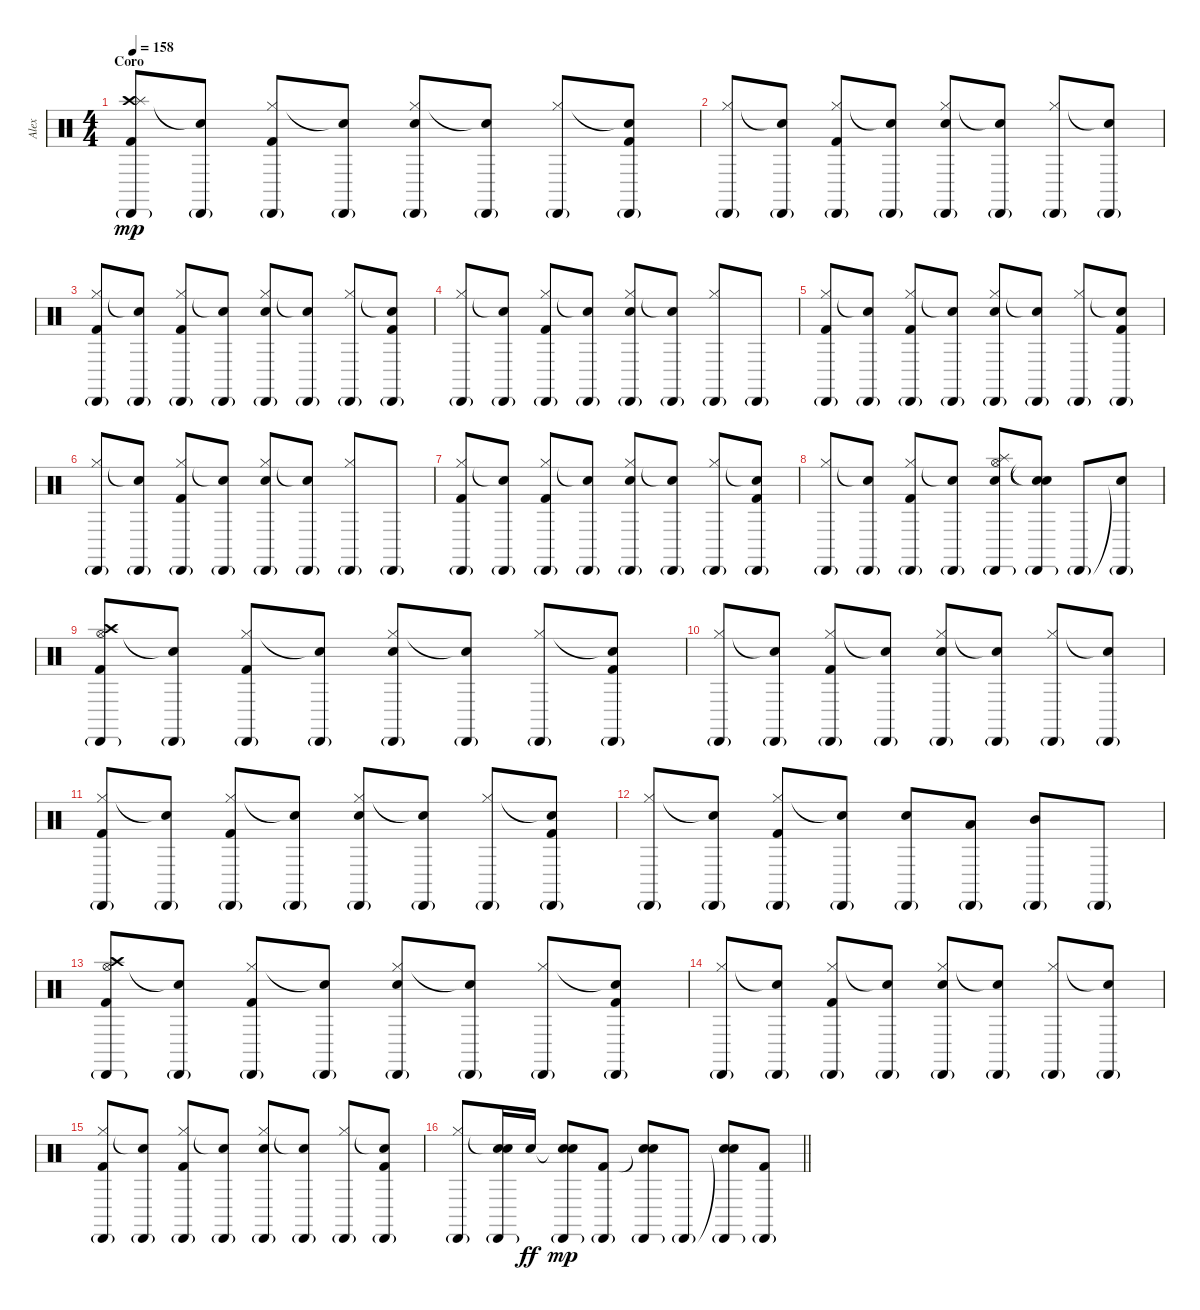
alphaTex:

\track ("Alex" "Alex") {instrument percussion}
\staff {score}
\articulation defaults
\ts (4 4)
\section ("" "Coro")
\tempo 158
\clef neutral
\ks c
("Crash high (hit)" "Kick (hit) 2" "Splash (hit)" "Cabasa (hit)"{g}).8{dy mp} ("Snare (hit)"{t} "Cabasa (hit)"{g}).8 ("Hi-Hat (closed)" "Kick (hit) 2" "Cabasa (hit)"{g}).8 ("Snare (hit)"{t} "Cabasa (hit)"{g}).8 ("Hi-Hat (closed)" "Electric Snare (hit)" "Cabasa (hit)"{g}).8 ("Snare (hit)"{t} "Cabasa (hit)"{g}).8 ("Hi-Hat (closed)" "Cabasa (hit)"{g}).8 ("Snare (hit)"{t} "Kick (hit) 2" "Cabasa (hit)"{g}).8 |
("Hi-Hat (closed)" "Cabasa (hit)"{g}).8 ("Snare (hit)"{t} "Cabasa (hit)"{g}).8 ("Hi-Hat (closed)" "Kick (hit) 2" "Cabasa (hit)"{g}).8 ("Snare (hit)"{t} "Cabasa (hit)"{g}).8 ("Hi-Hat (closed)" "Electric Snare (hit)" "Cabasa (hit)"{g}).8 ("Snare (hit)"{t} "Cabasa (hit)"{g}).8 ("Hi-Hat (closed)" "Cabasa (hit)"{g}).8 ("Snare (hit)"{t} "Cabasa (hit)"{g}).8 |
("Hi-Hat (closed)" "Kick (hit) 2" "Cabasa (hit)"{g}).8 ("Snare (hit)"{t} "Cabasa (hit)"{g}).8 ("Hi-Hat (closed)" "Kick (hit) 2" "Cabasa (hit)"{g}).8 ("Snare (hit)"{t} "Cabasa (hit)"{g}).8 ("Hi-Hat (closed)" "Electric Snare (hit)" "Cabasa (hit)"{g}).8 ("Snare (hit)"{t} "Cabasa (hit)"{g}).8 ("Hi-Hat (closed)" "Cabasa (hit)"{g}).8 ("Snare (hit)"{t} "Kick (hit) 2" "Cabasa (hit)"{g}).8 |
("Hi-Hat (closed)" "Cabasa (hit)"{g}).8 ("Snare (hit)"{t} "Cabasa (hit)"{g}).8 ("Hi-Hat (closed)" "Kick (hit) 2" "Cabasa (hit)"{g}).8 ("Snare (hit)"{t} "Cabasa (hit)"{g}).8 ("Hi-Hat (closed)" "Electric Snare (hit)" "Cabasa (hit)"{g}).8 ("Snare (hit)"{t} "Cabasa (hit)"{g}).8 ("Hi-Hat (closed)" "Cabasa (hit)"{g}).8 "Cabasa (hit)"{g}.8 |
("Hi-Hat (closed)" "Kick (hit) 2" "Cabasa (hit)"{g}).8 ("Snare (hit)"{t} "Cabasa (hit)"{g}).8 ("Hi-Hat (closed)" "Kick (hit) 2" "Cabasa (hit)"{g}).8 ("Snare (hit)"{t} "Cabasa (hit)"{g}).8 ("Hi-Hat (closed)" "Electric Snare (hit)" "Cabasa (hit)"{g}).8 ("Snare (hit)"{t} "Cabasa (hit)"{g}).8 ("Hi-Hat (closed)" "Cabasa (hit)"{g}).8 ("Snare (hit)"{t} "Kick (hit) 2" "Cabasa (hit)"{g}).8 |
("Hi-Hat (closed)" "Cabasa (hit)"{g}).8 ("Snare (hit)"{t} "Cabasa (hit)"{g}).8 ("Hi-Hat (closed)" "Kick (hit) 2" "Cabasa (hit)"{g}).8 ("Snare (hit)"{t} "Cabasa (hit)"{g}).8 ("Hi-Hat (closed)" "Electric Snare (hit)" "Cabasa (hit)"{g}).8 ("Snare (hit)"{t} "Cabasa (hit)"{g}).8 ("Hi-Hat (closed)" "Cabasa (hit)"{g}).8 "Cabasa (hit)"{g}.8 |
("Hi-Hat (closed)" "Kick (hit) 2" "Cabasa (hit)"{g}).8 ("Snare (hit)"{t} "Cabasa (hit)"{g}).8 ("Hi-Hat (closed)" "Kick (hit) 2" "Cabasa (hit)"{g}).8 ("Snare (hit)"{t} "Cabasa (hit)"{g}).8 ("Hi-Hat (closed)" "Electric Snare (hit)" "Cabasa (hit)"{g}).8 ("Snare (hit)"{t} "Cabasa (hit)"{g}).8 ("Hi-Hat (closed)" "Cabasa (hit)"{g}).8 ("Snare (hit)"{t} "Kick (hit) 2" "Cabasa (hit)"{g}).8 |
("Hi-Hat (closed)" "Cabasa (hit)"{g}).8 ("Snare (hit)"{t} "Cabasa (hit)"{g}).8 ("Hi-Hat (closed)" "Kick (hit) 2" "Cabasa (hit)"{g}).8 ("Snare (hit)"{t} "Cabasa (hit)"{g}).8 ("Splash (hit)" "Hi-Hat (open)" "Electric Snare (hit)" "Cabasa (hit)"{g}).8 ("Snare (hit)"{t} "Snare (hit)"{t} "Cabasa (hit)"{g}).8 "Cabasa (hit)"{g}.8 ("Snare (hit)"{t} "Cabasa (hit)"{g}).8 |
("Hi-Hat (open)" "Kick (hit) 2" "Crash high (hit)" "Cabasa (hit)"{g}).8 ("Snare (hit)"{t} "Cabasa (hit)"{g}).8 ("Hi-Hat (closed)" "Kick (hit) 2" "Cabasa (hit)"{g}).8 ("Snare (hit)"{t} "Cabasa (hit)"{g}).8 ("Hi-Hat (closed)" "Electric Snare (hit)" "Cabasa (hit)"{g}).8 ("Snare (hit)"{t} "Cabasa (hit)"{g}).8 ("Hi-Hat (closed)" "Cabasa (hit)"{g}).8 ("Snare (hit)"{t} "Kick (hit) 2" "Cabasa (hit)"{g}).8 |
("Hi-Hat (closed)" "Cabasa (hit)"{g}).8 ("Snare (hit)"{t} "Cabasa (hit)"{g}).8 ("Hi-Hat (closed)" "Kick (hit) 2" "Cabasa (hit)"{g}).8 ("Snare (hit)"{t} "Cabasa (hit)"{g}).8 ("Hi-Hat (closed)" "Electric Snare (hit)" "Cabasa (hit)"{g}).8 ("Snare (hit)"{t} "Cabasa (hit)"{g}).8 ("Hi-Hat (closed)" "Cabasa (hit)"{g}).8 ("Snare (hit)"{t} "Cabasa (hit)"{g}).8 |
("Hi-Hat (closed)" "Kick (hit) 2" "Cabasa (hit)"{g}).8 ("Snare (hit)"{t} "Cabasa (hit)"{g}).8 ("Hi-Hat (closed)" "Kick (hit) 2" "Cabasa (hit)"{g}).8 ("Snare (hit)"{t} "Cabasa (hit)"{g}).8 ("Hi-Hat (closed)" "Electric Snare (hit)" "Cabasa (hit)"{g}).8 ("Snare (hit)"{t} "Cabasa (hit)"{g}).8 ("Hi-Hat (closed)" "Cabasa (hit)"{g}).8 ("Snare (hit)"{t} "Kick (hit) 2" "Cabasa (hit)"{g}).8 |
("Hi-Hat (closed)" "Cabasa (hit)"{g}).8 ("Snare (hit)"{t} "Cabasa (hit)"{g}).8 ("Hi-Hat (closed)" "Kick (hit) 2" "Cabasa (hit)"{g}).8 ("Snare (hit)"{t} "Cabasa (hit)"{g}).8 ("Electric Snare (hit)" "Cabasa (hit)"{g}).8 ("Low Tom (hit)" "Cabasa (hit)"{g}).8 ("Mid Tom (hit)" "Cabasa (hit)"{g}).8 "Cabasa (hit)"{g}.8 |
("Hi-Hat (open)" "Kick (hit) 2" "Crash high (hit)" "Cabasa (hit)"{g}).8 ("Snare (hit)"{t} "Cabasa (hit)"{g}).8 ("Hi-Hat (closed)" "Kick (hit) 2" "Cabasa (hit)"{g}).8 ("Snare (hit)"{t} "Cabasa (hit)"{g}).8 ("Hi-Hat (closed)" "Electric Snare (hit)" "Cabasa (hit)"{g}).8 ("Snare (hit)"{t} "Cabasa (hit)"{g}).8 ("Hi-Hat (closed)" "Cabasa (hit)"{g}).8 ("Snare (hit)"{t} "Kick (hit) 2" "Cabasa (hit)"{g}).8 |
("Hi-Hat (closed)" "Cabasa (hit)"{g}).8 ("Snare (hit)"{t} "Cabasa (hit)"{g}).8 ("Hi-Hat (closed)" "Kick (hit) 2" "Cabasa (hit)"{g}).8 ("Snare (hit)"{t} "Cabasa (hit)"{g}).8 ("Hi-Hat (closed)" "Electric Snare (hit)" "Cabasa (hit)"{g}).8 ("Snare (hit)"{t} "Cabasa (hit)"{g}).8 ("Hi-Hat (closed)" "Cabasa (hit)"{g}).8 ("Snare (hit)"{t} "Cabasa (hit)"{g}).8 |
("Hi-Hat (closed)" "Kick (hit) 2" "Cabasa (hit)"{g}).8 ("Snare (hit)"{t} "Cabasa (hit)"{g}).8 ("Hi-Hat (closed)" "Kick (hit) 2" "Cabasa (hit)"{g}).8 ("Snare (hit)"{t} "Cabasa (hit)"{g}).8 ("Hi-Hat (closed)" "Electric Snare (hit)" "Cabasa (hit)"{g}).8 ("Snare (hit)"{t} "Cabasa (hit)"{g}).8 ("Hi-Hat (closed)" "Cabasa (hit)"{g}).8 ("Snare (hit)"{t} "Kick (hit) 2" "Cabasa (hit)"{g}).8 |
\barLineRight lightlight
("Hi-Hat (closed)" "Cabasa (hit)"{g}).8 ("Snare (hit)"{t} "Electric Snare (hit)" "Cabasa (hit)"{g}).16 "Electric Snare (hit)".16{dy ff} ("Snare (hit)"{t} "Electric Snare (hit)" "Cabasa (hit)"{g}).8{dy mp} ("Kick (hit) 2" "Cabasa (hit)"{g}).8 ("Snare (hit)"{t} "Electric Snare (hit)" "Cabasa (hit)"{g}).8 "Cabasa (hit)"{g}.8 ("Snare (hit)"{t} "Electric Snare (hit)" "Cabasa (hit)"{g}).8 ("Kick (hit) 2" "Cabasa (hit)"{g}).8
